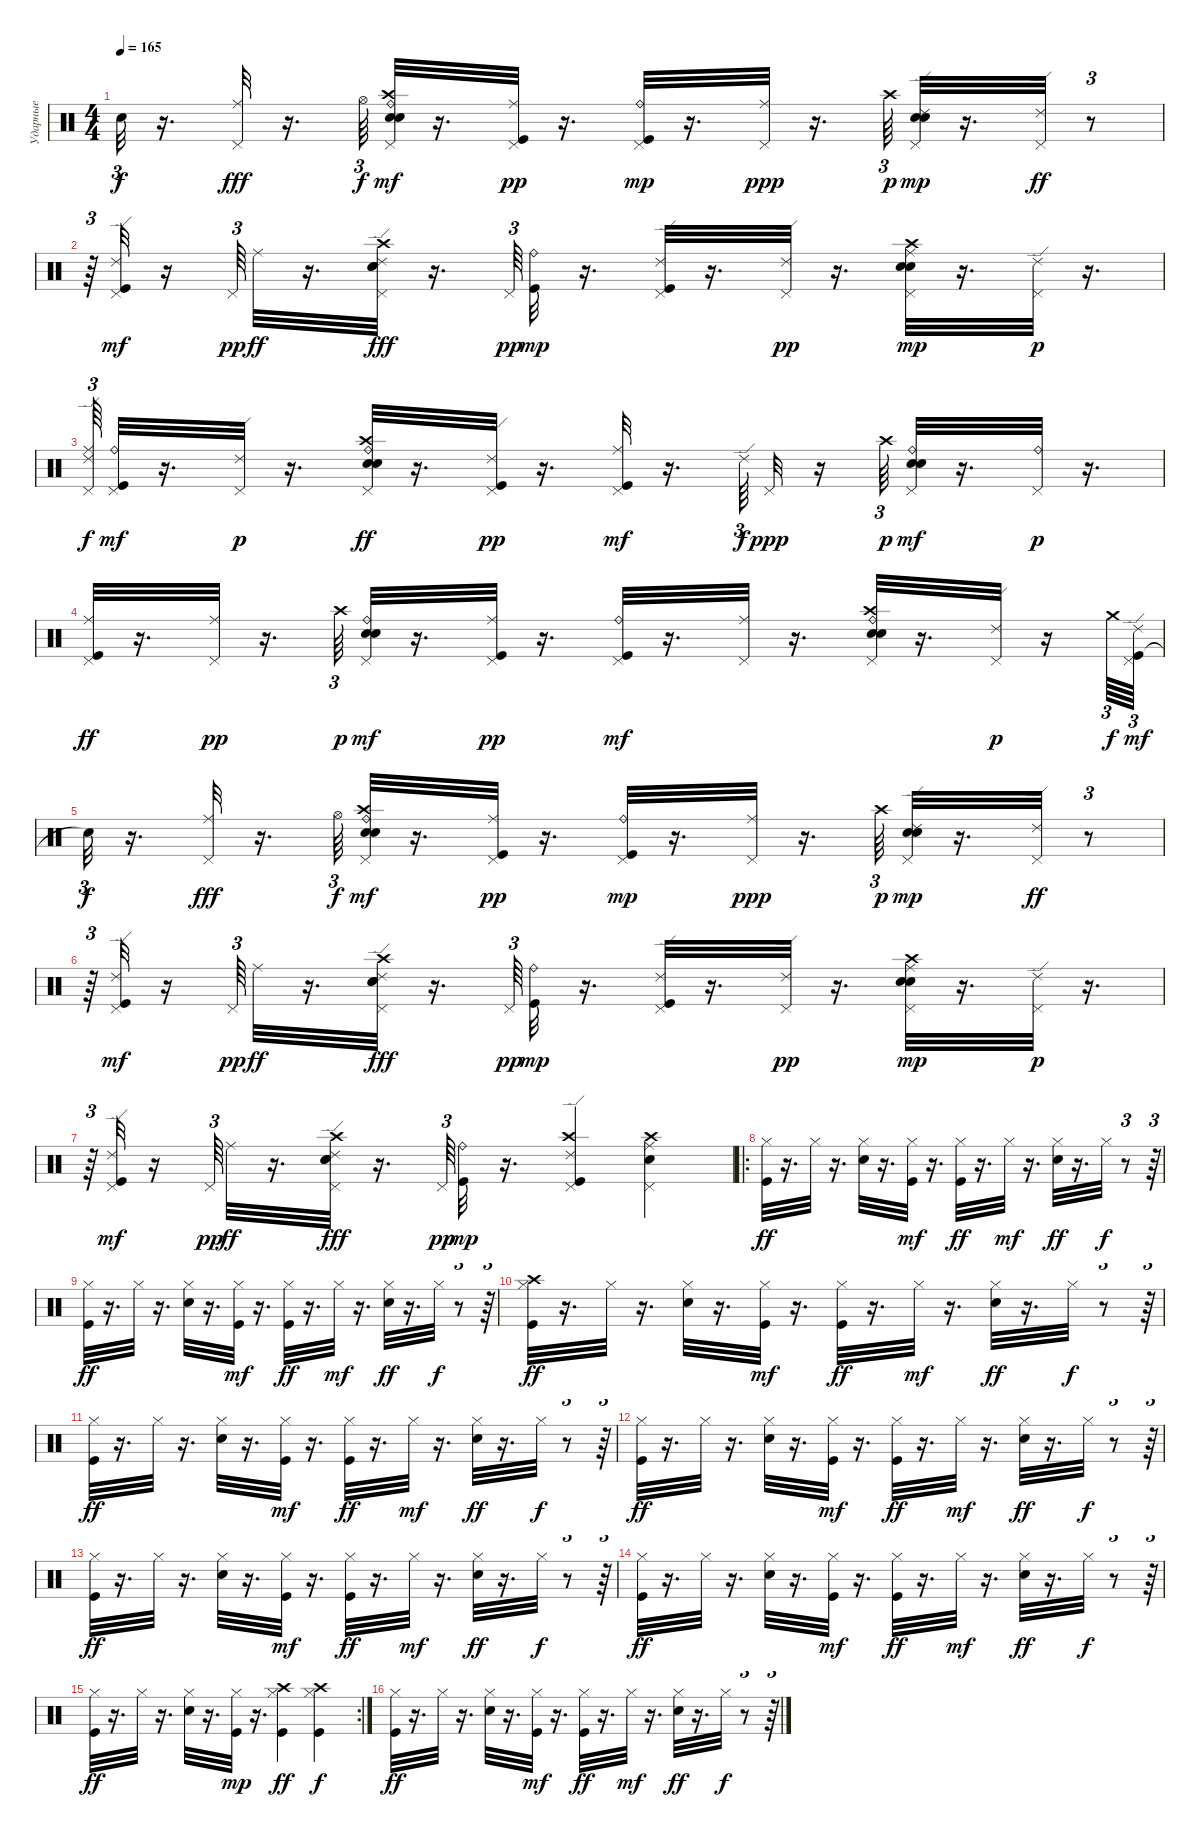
\track ("Ударные" "Ударные") {instrument percussion}
\staff {score}
\articulation defaults
\ts (4 4)
\tempo 165
\clef neutral
\ks c "Snare (hit)"{t}.32{tu (3 2) dy f}
r.16{d} ("Pedal Hi-Hat (hit)" "Ride (middle)").32{dy fff} r.16{d} "Hi-Hat (open)".64{tu (3 2) dy f} ("Electric Snare (hit)" "Crash high (hit)" "Snare (hit) 2" "Ride (bell)" "Pedal Hi-Hat (hit)").32{dy mf} r.16{d} ("Kick (hit)" "Ride (middle)" "Pedal Hi-Hat (hit)").32{dy pp} r.16{d} ("Kick (hit)" "Ride (bell)" "Pedal Hi-Hat (hit)").32{dy mp} r.16{d} ("Ride (middle)" "Pedal Hi-Hat (hit)").32{dy ppp} r.16{d} "Crash high (hit)".64{tu (3 2) dy p} ("Electric Snare (hit)" "Snare (hit) 2" "Ride (edge) 2" "Pedal Hi-Hat (hit)").32{dy mp} r.16{d} ("Pedal Hi-Hat (hit)" "Ride (edge) 2").32{dy ff} r.8{tu (3 2)} |
r.64{tu (3 2)} ("Kick (hit)" "Ride (edge) 2" "Pedal Hi-Hat (hit)").32{dy mf} r.16 "Pedal Hi-Hat (hit)".64{tu (3 2) dy pp} "Ride (middle)".32{dy ff} r.16{d} ("Pedal Hi-Hat (hit)" "Electric Snare (hit)" "Crash high (hit)" "Snare (hit) 2" "Ride (edge) 2").32{dy fff} r.16{d} "Pedal Hi-Hat (hit)".64{tu (3 2) dy pp} ("Kick (hit)" "Ride (bell)").32{dy mp} r.16{d} ("Kick (hit)" "Ride (edge) 2" "Pedal Hi-Hat (hit)").32 r.16{d} ("Ride (edge) 2" "Pedal Hi-Hat (hit)").32{dy pp} r.16{d} ("Electric Snare (hit)" "Snare (hit) 2" "Ride (middle)" "Pedal Hi-Hat (hit)" "Crash high (hit)").32{dy mp} r.16{d} ("Ride (edge) 2" "Pedal Hi-Hat (hit)").32{dy p} r.16{d} |
("Ride (edge) 2" "Pedal Hi-Hat (hit)" "Ride (middle)").64{tu (3 2) dy f} ("Kick (hit)" "Ride (bell)" "Pedal Hi-Hat (hit)").32{dy mf} r.16{d} ("Ride (edge) 2" "Pedal Hi-Hat (hit)").32{dy p} r.16{d} ("Electric Snare (hit)" "Crash high (hit)" "Snare (hit) 2" "Ride (bell)" "Pedal Hi-Hat (hit)").32{dy ff} r.16{d} ("Kick (hit)" "Ride (edge) 2" "Pedal Hi-Hat (hit)").32{dy pp} r.16{d} ("Kick (hit)" "Ride (middle)" "Pedal Hi-Hat (hit)").32{dy mf} r.16{d} "Ride (edge) 2".64{tu (3 2) dy f} "Pedal Hi-Hat (hit)".32{dy ppp} r.16 "Crash high (hit)".64{tu (3 2) dy p} ("Electric Snare (hit)" "Snare (hit) 2" "Ride (bell)" "Pedal Hi-Hat (hit)").32{dy mf} r.16{d} ("Ride (bell)" "Pedal Hi-Hat (hit)").32{dy p} r.16{d} |
("Kick (hit)" "Ride (middle)" "Pedal Hi-Hat (hit)").32{dy ff} r.16{d} ("Ride (middle)" "Pedal Hi-Hat (hit)").32{dy pp} r.16{d} "Crash high (hit)".64{tu (3 2) dy p} ("Electric Snare (hit)" "Snare (hit) 2" "Ride (bell)" "Pedal Hi-Hat (hit)").32{dy mf} r.16{d} ("Kick (hit)" "Ride (middle)" "Pedal Hi-Hat (hit)").32{dy pp} r.16{d} ("Kick (hit)" "Ride (bell)" "Pedal Hi-Hat (hit)").32{dy mf} r.16{d} ("Pedal Hi-Hat (hit)" "Ride (middle)").32 r.16{d} ("Electric Snare (hit)" "Crash high (hit)" "Snare (hit) 2" "Ride (bell)" "Pedal Hi-Hat (hit)").32 r.16{d} ("Ride (edge) 2" "Pedal Hi-Hat (hit)").32{dy p} r.16 "Crash medium (hit)".64{tu (3 2) dy f} ("Kick (hit)" "Ride (edge) 2" "Pedal Hi-Hat (hit)").64{tu (3 2) dy mf} |
"Snare (hit)"{t}.32{tu (3 2) dy f} r.16{d} ("Pedal Hi-Hat (hit)" "Ride (middle)").32{dy fff} r.16{d} "Hi-Hat (open)".64{tu (3 2) dy f} ("Electric Snare (hit)" "Crash high (hit)" "Snare (hit) 2" "Ride (bell)" "Pedal Hi-Hat (hit)").32{dy mf} r.16{d} ("Kick (hit)" "Ride (middle)" "Pedal Hi-Hat (hit)").32{dy pp} r.16{d} ("Kick (hit)" "Ride (bell)" "Pedal Hi-Hat (hit)").32{dy mp} r.16{d} ("Ride (middle)" "Pedal Hi-Hat (hit)").32{dy ppp} r.16{d} "Crash high (hit)".64{tu (3 2) dy p} ("Electric Snare (hit)" "Snare (hit) 2" "Ride (edge) 2" "Pedal Hi-Hat (hit)").32{dy mp} r.16{d} ("Pedal Hi-Hat (hit)" "Ride (edge) 2").32{dy ff} r.8{tu (3 2)} |
r.64{tu (3 2)} ("Kick (hit)" "Ride (edge) 2" "Pedal Hi-Hat (hit)").32{dy mf} r.16 "Pedal Hi-Hat (hit)".64{tu (3 2) dy pp} "Ride (middle)".32{dy ff} r.16{d} ("Pedal Hi-Hat (hit)" "Electric Snare (hit)" "Crash high (hit)" "Snare (hit) 2" "Ride (edge) 2").32{dy fff} r.16{d} "Pedal Hi-Hat (hit)".64{tu (3 2) dy pp} ("Kick (hit)" "Ride (bell)").32{dy mp} r.16{d} ("Kick (hit)" "Ride (edge) 2" "Pedal Hi-Hat (hit)").32 r.16{d} ("Ride (edge) 2" "Pedal Hi-Hat (hit)").32{dy pp} r.16{d} ("Electric Snare (hit)" "Snare (hit) 2" "Ride (middle)" "Pedal Hi-Hat (hit)" "Crash high (hit)").32{dy mp} r.16{d} ("Ride (edge) 2" "Pedal Hi-Hat (hit)").32{dy p} r.16{d} |
r.64{tu (3 2)} ("Kick (hit)" "Ride (edge) 2" "Pedal Hi-Hat (hit)").32{dy mf} r.16 "Pedal Hi-Hat (hit)".64{tu (3 2) dy pp} "Ride (middle)".32{dy ff} r.16{d} ("Pedal Hi-Hat (hit)" "Electric Snare (hit)" "Crash high (hit)" "Snare (hit) 2" "Ride (edge) 2").32{dy fff} r.16{d} "Pedal Hi-Hat (hit)".64{tu (3 2) dy pp} ("Kick (hit)" "Ride (bell)").32{dy mp} r.16{d} ("Kick (hit)" "Ride (edge) 2" "Pedal Hi-Hat (hit)" "Crash high (hit)").4 ("Electric Snare (hit)" "Ride (middle)" "Pedal Hi-Hat (hit)" "Crash high (hit)").4 |
\ro
("Kick (hit)" "Hi-Hat (closed)").32{dy ff} r.16{d} "Hi-Hat (closed)".32 r.16{d} ("Hi-Hat (closed)" "Electric Snare (hit)").32 r.16{d} ("Kick (hit)" "Hi-Hat (closed)").32{dy mf} r.16{d} ("Kick (hit)" "Hi-Hat (closed)").32{dy ff} r.16{d} "Hi-Hat (closed)".32{dy mf} r.16{d} ("Hi-Hat (closed)" "Electric Snare (hit)").32{dy ff} r.16{d} "Hi-Hat (closed)".32{dy f} r.8{tu (3 2)} r.64{tu (3 2)} |
("Kick (hit)" "Hi-Hat (closed)").32{dy ff} r.16{d} "Hi-Hat (closed)".32 r.16{d} ("Hi-Hat (closed)" "Electric Snare (hit)").32 r.16{d} ("Kick (hit)" "Hi-Hat (closed)").32{dy mf} r.16{d} ("Kick (hit)" "Hi-Hat (closed)").32{dy ff} r.16{d} "Hi-Hat (closed)".32{dy mf} r.16{d} ("Hi-Hat (closed)" "Electric Snare (hit)").32{dy ff} r.16{d} "Hi-Hat (closed)".32{dy f} r.8{tu (3 2)} r.64{tu (3 2)} |
("Kick (hit)" "Hi-Hat (closed)" "Crash high (hit)").32{dy ff} r.16{d} "Hi-Hat (closed)".32 r.16{d} ("Hi-Hat (closed)" "Electric Snare (hit)").32 r.16{d} ("Kick (hit)" "Hi-Hat (closed)").32{dy mf} r.16{d} ("Kick (hit)" "Hi-Hat (closed)").32{dy ff} r.16{d} "Hi-Hat (closed)".32{dy mf} r.16{d} ("Hi-Hat (closed)" "Electric Snare (hit)").32{dy ff} r.16{d} "Hi-Hat (closed)".32{dy f} r.8{tu (3 2)} r.64{tu (3 2)} |
("Kick (hit)" "Hi-Hat (closed)").32{dy ff} r.16{d} "Hi-Hat (closed)".32 r.16{d} ("Hi-Hat (closed)" "Electric Snare (hit)").32 r.16{d} ("Kick (hit)" "Hi-Hat (closed)").32{dy mf} r.16{d} ("Kick (hit)" "Hi-Hat (closed)").32{dy ff} r.16{d} "Hi-Hat (closed)".32{dy mf} r.16{d} ("Hi-Hat (closed)" "Electric Snare (hit)").32{dy ff} r.16{d} "Hi-Hat (closed)".32{dy f} r.8{tu (3 2)} r.64{tu (3 2)} |
("Kick (hit)" "Hi-Hat (closed)").32{dy ff} r.16{d} "Hi-Hat (closed)".32 r.16{d} ("Hi-Hat (closed)" "Electric Snare (hit)").32 r.16{d} ("Kick (hit)" "Hi-Hat (closed)").32{dy mf} r.16{d} ("Kick (hit)" "Hi-Hat (closed)").32{dy ff} r.16{d} "Hi-Hat (closed)".32{dy mf} r.16{d} ("Hi-Hat (closed)" "Electric Snare (hit)").32{dy ff} r.16{d} "Hi-Hat (closed)".32{dy f} r.8{tu (3 2)} r.64{tu (3 2)} |
("Kick (hit)" "Hi-Hat (closed)").32{dy ff} r.16{d} "Hi-Hat (closed)".32 r.16{d} ("Hi-Hat (closed)" "Electric Snare (hit)").32 r.16{d} ("Kick (hit)" "Hi-Hat (closed)").32{dy mf} r.16{d} ("Kick (hit)" "Hi-Hat (closed)").32{dy ff} r.16{d} "Hi-Hat (closed)".32{dy mf} r.16{d} ("Hi-Hat (closed)" "Electric Snare (hit)").32{dy ff} r.16{d} "Hi-Hat (closed)".32{dy f} r.8{tu (3 2)} r.64{tu (3 2)} |
("Kick (hit)" "Hi-Hat (closed)").32{dy ff} r.16{d} "Hi-Hat (closed)".32 r.16{d} ("Hi-Hat (closed)" "Electric Snare (hit)").32 r.16{d} ("Kick (hit)" "Hi-Hat (closed)").32{dy mf} r.16{d} ("Kick (hit)" "Hi-Hat (closed)").32{dy ff} r.16{d} "Hi-Hat (closed)".32{dy mf} r.16{d} ("Hi-Hat (closed)" "Electric Snare (hit)").32{dy ff} r.16{d} "Hi-Hat (closed)".32{dy f} r.8{tu (3 2)} r.64{tu (3 2)} |
\rc 2
("Kick (hit)" "Hi-Hat (closed)").32{dy ff} r.16{d} "Hi-Hat (closed)".32 r.16{d} ("Hi-Hat (closed)" "Electric Snare (hit)").32 r.16{d} ("Kick (hit)" "Hi-Hat (closed)").32{dy mp} r.16{d} ("Kick (hit)" "Hi-Hat (closed)" "Crash high (hit)").4{dy ff} ("Kick (hit)" "Hi-Hat (closed)" "Crash high (hit)").4{dy f} |
("Kick (hit)" "Hi-Hat (closed)").32{dy ff} r.16{d} "Hi-Hat (closed)".32 r.16{d} ("Hi-Hat (closed)" "Electric Snare (hit)").32 r.16{d} ("Kick (hit)" "Hi-Hat (closed)").32{dy mf} r.16{d} ("Kick (hit)" "Hi-Hat (closed)").32{dy ff} r.16{d} "Hi-Hat (closed)".32{dy mf} r.16{d} ("Hi-Hat (closed)" "Electric Snare (hit)").32{dy ff} r.16{d} "Hi-Hat (closed)".32{dy f} r.8{tu (3 2)} r.64{tu (3 2)}
